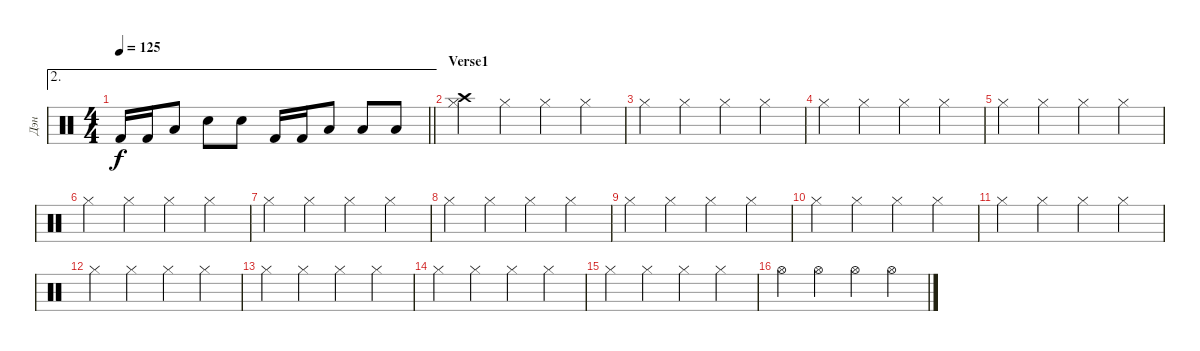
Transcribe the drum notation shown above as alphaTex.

\track ("Дэн" "Дэн") {instrument percussion}
\staff {score}
\articulation defaults
\ae 2
\ts (4 4)
\tempo 125
\clef neutral
\barLineRight lightlight
\ks c "Kick (hit) 2".16{dy f} "Kick (hit) 2".16 "Low Tom (hit)".8 "Electric Snare (hit)".8 "Electric Snare (hit)".8 "Kick (hit) 2".16 "Kick (hit) 2".16 "Low Tom (hit)".8 "Low Tom (hit)".8 "Low Tom (hit)".8
|
\section ("" "Verse1")
("Crash high (hit)" "Hi-Hat (closed)").4 "Hi-Hat (closed)".4 "Hi-Hat (closed)".4 "Hi-Hat (closed)".4 |
"Hi-Hat (closed)".4 "Hi-Hat (closed)".4 "Hi-Hat (closed)".4 "Hi-Hat (closed)".4 |
"Hi-Hat (closed)".4 "Hi-Hat (closed)".4 "Hi-Hat (closed)".4 "Hi-Hat (closed)".4 |
"Hi-Hat (closed)".4 "Hi-Hat (closed)".4 "Hi-Hat (closed)".4 "Hi-Hat (closed)".4 |
"Hi-Hat (closed)".4 "Hi-Hat (closed)".4 "Hi-Hat (closed)".4 "Hi-Hat (closed)".4 |
"Hi-Hat (closed)".4 "Hi-Hat (closed)".4 "Hi-Hat (closed)".4 "Hi-Hat (closed)".4 |
"Hi-Hat (closed)".4 "Hi-Hat (closed)".4 "Hi-Hat (closed)".4 "Hi-Hat (closed)".4 |
"Hi-Hat (closed)".4 "Hi-Hat (closed)".4 "Hi-Hat (closed)".4 "Hi-Hat (closed)".4 |
"Hi-Hat (closed)".4 "Hi-Hat (closed)".4 "Hi-Hat (closed)".4 "Hi-Hat (closed)".4 |
"Hi-Hat (closed)".4 "Hi-Hat (closed)".4 "Hi-Hat (closed)".4 "Hi-Hat (closed)".4 |
"Hi-Hat (closed)".4 "Hi-Hat (closed)".4 "Hi-Hat (closed)".4 "Hi-Hat (closed)".4 |
"Hi-Hat (closed)".4 "Hi-Hat (closed)".4 "Hi-Hat (closed)".4 "Hi-Hat (closed)".4 |
"Hi-Hat (closed)".4 "Hi-Hat (closed)".4 "Hi-Hat (closed)".4 "Hi-Hat (closed)".4 |
"Hi-Hat (closed)".4 "Hi-Hat (closed)".4 "Hi-Hat (closed)".4 "Hi-Hat (closed)".4 |
"Hi-Hat (open)".4 "Hi-Hat (open)".4 "Hi-Hat (open)".4 "Hi-Hat (open)".4
